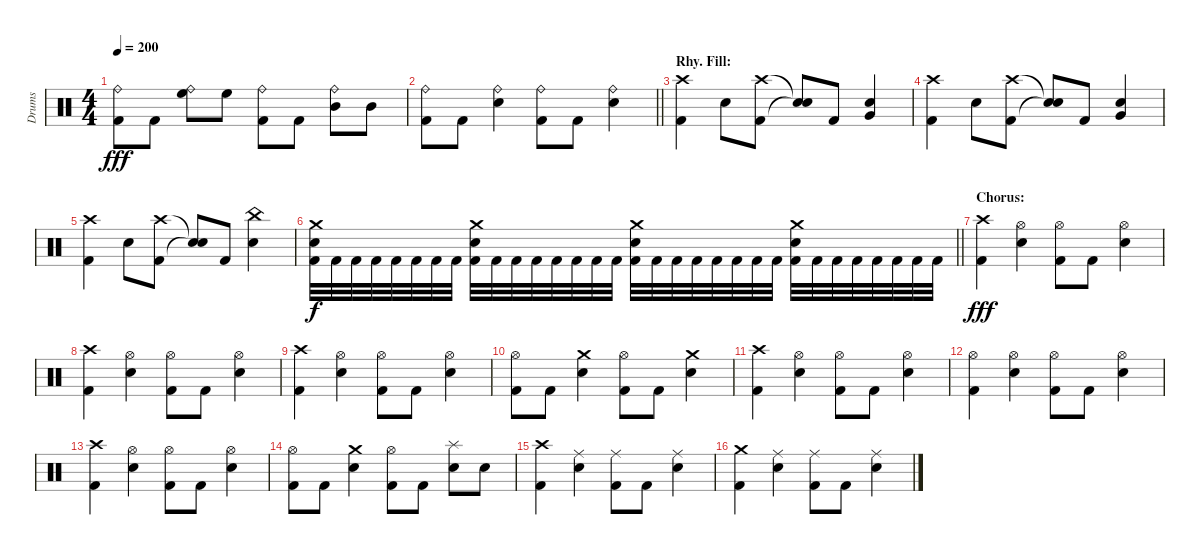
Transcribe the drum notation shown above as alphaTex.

\track ("Drums" "Drums") {instrument percussion}
\staff {score}
\articulation defaults
\ts (4 4)
\tempo 200
\clef neutral
\ks c
("Ride (bell)" "Kick (hit) 2").8{dy fff} "Kick (hit) 2".8 ("Ride (bell)" "High Floor Tom (hit)").8 "High Floor Tom (hit)".8 ("Ride (bell)" "Kick (hit) 2").8 "Kick (hit) 2".8 ("Ride (bell)" "Mid Tom (hit)").8 "Mid Tom (hit)".8 |
\barLineRight lightlight
("Ride (bell)" "Kick (hit) 2").8 "Kick (hit) 2".8 ("Ride (bell)" "Electric Snare (hit)").4 ("Ride (bell)" "Kick (hit) 2").8 "Kick (hit) 2".8 ("Ride (bell)" "Electric Snare (hit)").4 |
\section ("" "Rhy. Fill:")
("Crash high (hit)" "Kick (hit) 2").4 "Electric Snare (hit)".8 ("Crash high (hit)" "Kick (hit) 2").8 ("Snare (hit)"{t} "Snare (hit)"{t}).8 "Kick (hit) 2".8 ("Electric Snare (hit)" "Very Low Tom (hit)").4 |
("Crash high (hit)" "Kick (hit) 2").4 "Electric Snare (hit)".8 ("Crash high (hit)" "Kick (hit) 2").8 ("Snare (hit)"{t} "Snare (hit)"{t}).8 "Kick (hit) 2".8 ("Electric Snare (hit)" "Very Low Tom (hit)").4 |
("Crash high (hit)" "Kick (hit) 2").4 "Electric Snare (hit)".8 ("Crash high (hit)" "Kick (hit) 2").8 ("Snare (hit)"{t} "Snare (hit)"{t}).8 "Kick (hit) 2".8 ("China (hit)" "Electric Snare (hit)").4 |
\barLineRight lightlight
("Crash medium (hit)" "Electric Snare (hit)" "Kick (hit) 2").32{dy f} "Kick (hit) 2".32 "Kick (hit) 2".32 "Kick (hit) 2".32 "Kick (hit) 2".32 "Kick (hit) 2".32 "Kick (hit) 2".32 "Kick (hit) 2".32 ("Crash medium (hit)" "Electric Snare (hit)" "Kick (hit) 2").32 "Kick (hit) 2".32 "Kick (hit) 2".32 "Kick (hit) 2".32 "Kick (hit) 2".32 "Kick (hit) 2".32 "Kick (hit) 2".32 "Kick (hit) 2".32 ("Crash medium (hit)" "Electric Snare (hit)" "Kick (hit) 2").32 "Kick (hit) 2".32 "Kick (hit) 2".32 "Kick (hit) 2".32 "Kick (hit) 2".32 "Kick (hit) 2".32 "Kick (hit) 2".32 "Kick (hit) 2".32 ("Crash medium (hit)" "Electric Snare (hit)" "Kick (hit) 2").32 "Kick (hit) 2".32 "Kick (hit) 2".32 "Kick (hit) 2".32 "Kick (hit) 2".32 "Kick (hit) 2".32 "Kick (hit) 2".32 "Kick (hit) 2".32 |
\section ("" "Chorus:")
("Crash high (hit)" "Kick (hit) 2").4{dy fff} ("Hi-Hat (open)" "Electric Snare (hit)").4 ("Hi-Hat (open)" "Kick (hit) 2").8 "Kick (hit) 2".8 ("Hi-Hat (open)" "Electric Snare (hit)").4 |
("Crash high (hit)" "Kick (hit) 2").4 ("Hi-Hat (open)" "Electric Snare (hit)").4 ("Hi-Hat (open)" "Kick (hit) 2").8 "Kick (hit) 2".8 ("Hi-Hat (open)" "Electric Snare (hit)").4 |
("Crash high (hit)" "Kick (hit) 2").4 ("Hi-Hat (open)" "Electric Snare (hit)").4 ("Hi-Hat (open)" "Kick (hit) 2").8 "Kick (hit) 2".8 ("Hi-Hat (open)" "Electric Snare (hit)").4 |
("Hi-Hat (open)" "Kick (hit) 2").8 "Kick (hit) 2".8 ("Crash medium (hit)" "Electric Snare (hit)").4 ("Hi-Hat (open)" "Kick (hit) 2").8 "Kick (hit) 2".8 ("Crash medium (hit)" "Electric Snare (hit)").4 |
("Crash high (hit)" "Kick (hit) 2").4 ("Hi-Hat (open)" "Electric Snare (hit)").4 ("Hi-Hat (open)" "Kick (hit) 2").8 "Kick (hit) 2".8 ("Hi-Hat (open)" "Electric Snare (hit)").4 |
("Hi-Hat (open)" "Kick (hit) 2").4 ("Hi-Hat (open)" "Electric Snare (hit)").4 ("Hi-Hat (open)" "Kick (hit) 2").8 "Kick (hit) 2".8 ("Hi-Hat (open)" "Electric Snare (hit)").4 |
("Crash high (hit)" "Kick (hit) 2").4 ("Hi-Hat (open)" "Electric Snare (hit)").4 ("Hi-Hat (open)" "Kick (hit) 2").8 "Kick (hit) 2".8 ("Hi-Hat (open)" "Electric Snare (hit)").4 |
("Hi-Hat (open)" "Kick (hit) 2").8 "Kick (hit) 2".8 ("Crash medium (hit)" "Electric Snare (hit)").4 ("Hi-Hat (open)" "Kick (hit) 2").8 "Kick (hit) 2".8 ("Splash (hit)" "Electric Snare (hit)").8 "Electric Snare (hit)".8 |
("Crash high (hit)" "Kick (hit) 2").4 ("Ride (middle)" "Electric Snare (hit)").4 ("Ride (middle)" "Kick (hit) 2").8 "Kick (hit) 2".8 ("Ride (middle)" "Electric Snare (hit)").4 |
("Crash medium (hit)" "Kick (hit) 2").4 ("Ride (middle)" "Electric Snare (hit)").4 ("Ride (middle)" "Kick (hit) 2").8 "Kick (hit) 2".8 ("Ride (middle)" "Electric Snare (hit)").4
